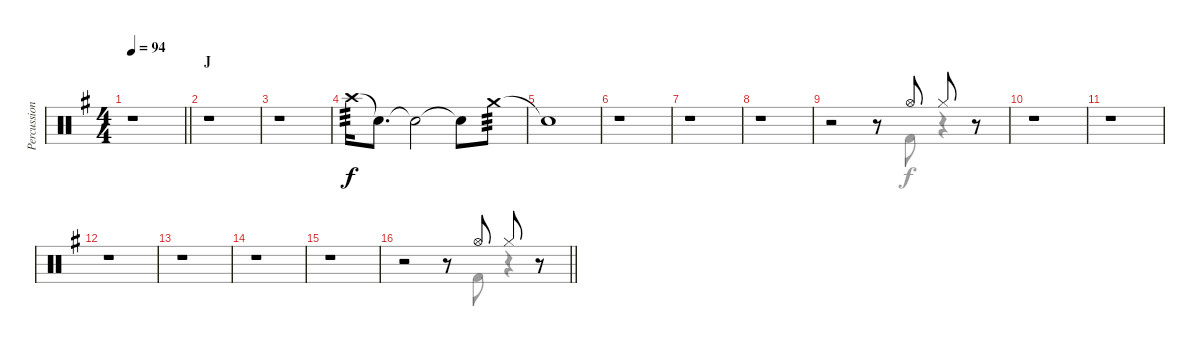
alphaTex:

\track ("Percussion" "Percussion") {instrument percussion}
\staff {score}
\articulation defaults
\voice
\ts (4 4)
\tempo 94
\clef neutral
\barLineRight lightlight
\ks g
r.1{dy f} |
\section ("" "J")
r.1 |
r.1 |
"Crash high (hit)".16{tp 3} "Snare (hit)"{t}.8{d} "Snare (hit)"{t}.2 "Snare (hit)"{t}.8 "Crash medium (hit)".8{tp 3} |
"Snare (hit)"{t}.1 |
r.1 |
r.1 |
r.1 |
r.2 r.8 "Hi-Hat (open)".8 "Hi-Hat (closed)".8 r.8 |
r.1 |
r.1 |
r.1 |
r.1 |
r.1 |
r.1 |
\barLineRight lightlight
r.2 r.8 "Hi-Hat (open)".8 "Hi-Hat (closed)".8 r.8
\voice
\clef neutral
\ottava regular
\simile none
\barLineRight lightlight
\ks g
|
|
|
|
|
|
|
|
r.2 r.8 "Kick (hit) 2".8 r.4 |
|
|
|
|
|
|
\barLineRight lightlight
r.2 r.8 "Kick (hit) 2".8 r.4
